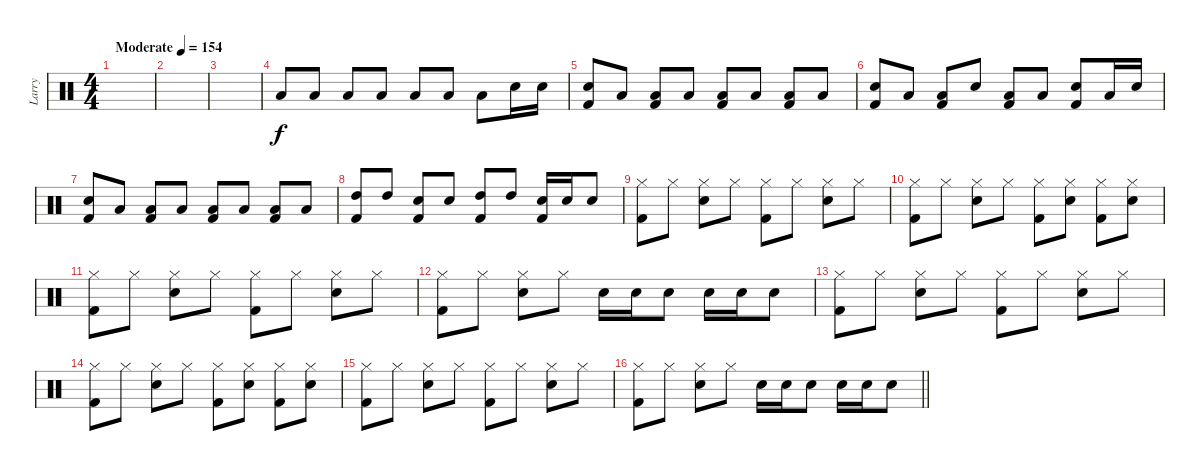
\track ("Larry " "Larry ") {instrument percussion}
\staff {score}
\articulation defaults
\ts (4 4)
\tempo (154 "Moderate")
\clef neutral
\ks c
|
|
|
"Low Tom (hit)".8 "Low Tom (hit)".8 "Low Tom (hit)".8 "Low Tom (hit)".8 "Low Tom (hit)".8 "Low Tom (hit)".8 "Low Tom (hit)".8 "Snare (hit) 2".16 "Snare (hit) 2".16 |
("Snare (hit) 2" "Kick (hit) 2").8 "Low Tom (hit)".8 ("Low Tom (hit)" "Kick (hit) 2").8 "Low Tom (hit)".8 ("Low Tom (hit)" "Kick (hit) 2").8 "Low Tom (hit)".8 ("Low Tom (hit)" "Kick (hit) 2").8 "Low Tom (hit)".8 |
("Snare (hit) 2" "Kick (hit) 2").8 "Low Tom (hit)".8 ("Low Tom (hit)" "Kick (hit) 2").8 "Snare (hit) 2".8 ("Low Tom (hit)" "Kick (hit) 2").8 "Low Tom (hit)".8 ("Snare (hit) 2" "Kick (hit) 2").8 "Low Tom (hit)".16 "Snare (hit) 2".16 |
("Snare (hit) 2" "Kick (hit) 2").8 "Low Tom (hit)".8 ("Low Tom (hit)" "Kick (hit) 2").8 "Low Tom (hit)".8 ("Low Tom (hit)" "Kick (hit) 2").8 "Low Tom (hit)".8 ("Low Tom (hit)" "Kick (hit) 2").8 "Low Tom (hit)".8 |
("High Tom (hit)" "Kick (hit) 2").8 "High Tom (hit)".8 ("Snare (hit) 2" "Kick (hit) 2").8 "Snare (hit) 2".8 ("High Tom (hit)" "Kick (hit) 2").8 "High Tom (hit)".8 ("Snare (hit) 2" "Kick (hit) 2").16 "Snare (hit) 2".16 "Snare (hit) 2".8 |
("Hi-Hat (closed)" "Kick (hit) 2").8 "Hi-Hat (closed)".8 ("Snare (hit) 2" "Hi-Hat (closed)").8 "Hi-Hat (closed)".8 ("Hi-Hat (closed)" "Kick (hit) 2").8 "Hi-Hat (closed)".8 ("Snare (hit) 2" "Hi-Hat (closed)").8 "Hi-Hat (closed)".8 |
("Hi-Hat (closed)" "Kick (hit) 2").8 "Hi-Hat (closed)".8 ("Snare (hit) 2" "Hi-Hat (closed)").8 "Hi-Hat (closed)".8 ("Hi-Hat (closed)" "Kick (hit) 2").8 ("Snare (hit) 2" "Hi-Hat (closed)").8 ("Hi-Hat (closed)" "Kick (hit) 2").8 ("Snare (hit) 2" "Hi-Hat (closed)").8 |
("Hi-Hat (closed)" "Kick (hit) 2").8 "Hi-Hat (closed)".8 ("Snare (hit) 2" "Hi-Hat (closed)").8 "Hi-Hat (closed)".8 ("Hi-Hat (closed)" "Kick (hit) 2").8 "Hi-Hat (closed)".8 ("Snare (hit) 2" "Hi-Hat (closed)").8 "Hi-Hat (closed)".8 |
("Hi-Hat (closed)" "Kick (hit) 2").8 "Hi-Hat (closed)".8 ("Snare (hit) 2" "Hi-Hat (closed)").8 "Hi-Hat (closed)".8 "Snare (hit) 2".16 "Snare (hit) 2".16 "Snare (hit) 2".8 "Snare (hit) 2".16 "Snare (hit) 2".16 "Snare (hit) 2".8 |
("Hi-Hat (closed)" "Kick (hit) 2").8 "Hi-Hat (closed)".8 ("Snare (hit) 2" "Hi-Hat (closed)").8 "Hi-Hat (closed)".8 ("Hi-Hat (closed)" "Kick (hit) 2").8 "Hi-Hat (closed)".8 ("Snare (hit) 2" "Hi-Hat (closed)").8 "Hi-Hat (closed)".8 |
("Hi-Hat (closed)" "Kick (hit) 2").8 "Hi-Hat (closed)".8 ("Snare (hit) 2" "Hi-Hat (closed)").8 "Hi-Hat (closed)".8 ("Hi-Hat (closed)" "Kick (hit) 2").8 ("Snare (hit) 2" "Hi-Hat (closed)").8 ("Hi-Hat (closed)" "Kick (hit) 2").8 ("Snare (hit) 2" "Hi-Hat (closed)").8 |
("Hi-Hat (closed)" "Kick (hit) 2").8 "Hi-Hat (closed)".8 ("Snare (hit) 2" "Hi-Hat (closed)").8 "Hi-Hat (closed)".8 ("Hi-Hat (closed)" "Kick (hit) 2").8 "Hi-Hat (closed)".8 ("Snare (hit) 2" "Hi-Hat (closed)").8 "Hi-Hat (closed)".8 |
\barLineRight lightlight
("Hi-Hat (closed)" "Kick (hit) 2").8 "Hi-Hat (closed)".8 ("Snare (hit) 2" "Hi-Hat (closed)").8 "Hi-Hat (closed)".8 "Snare (hit) 2".16 "Snare (hit) 2".16 "Snare (hit) 2".8 "Snare (hit) 2".16 "Snare (hit) 2".16 "Snare (hit) 2".8
